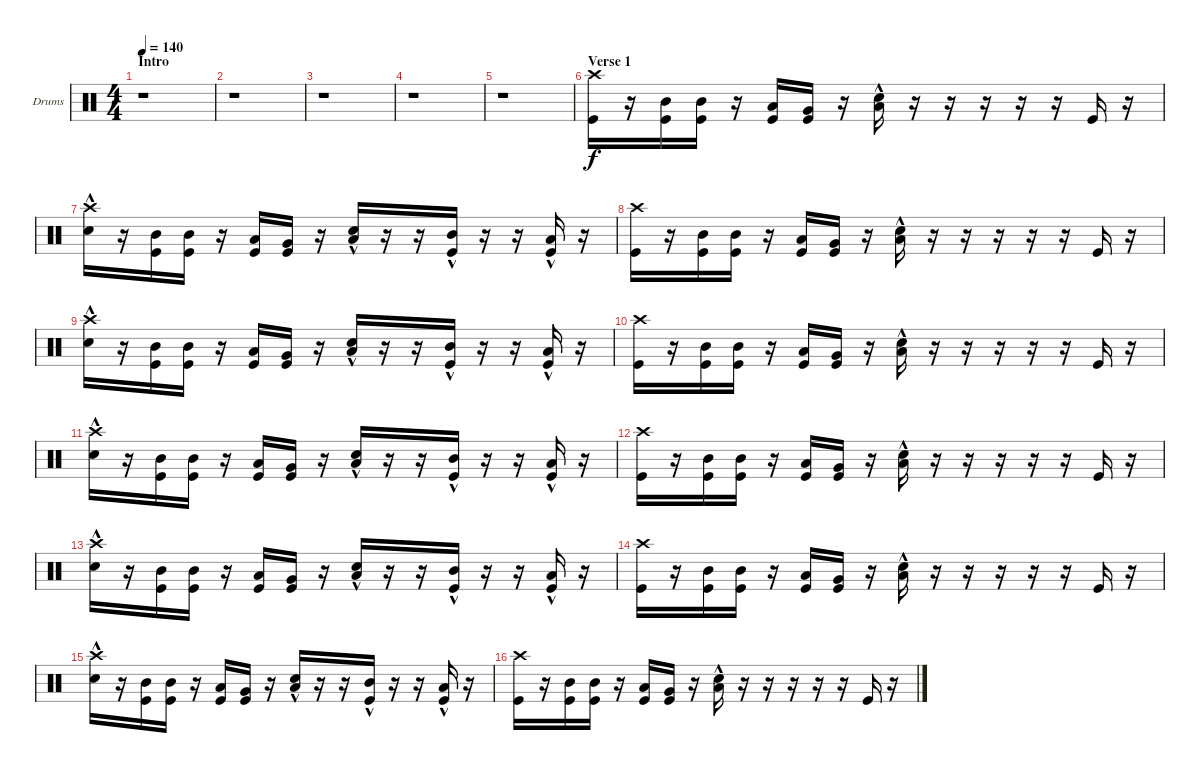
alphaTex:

\defaultSystemsLayout 4
\bracketExtendMode groupsimilarinstruments
\firstSystemTrackNameOrientation horizontal
\otherSystemsTrackNameOrientation horizontal
\track ("Drumkit - Paul" "Drums") {instrument percussion}
\staff {score}
\articulation defaults
\ts (4 4)
\section ("" "Intro")
\tempo 140
\clef neutral
\ks c
r.1{dy f} |
r.1 |
r.1 |
r.1 |
r.1 |
\section ("" "Verse 1")
("Kick (hit)" "Crash high (hit)").16 r.16 ("Mid Tom (hit)" "Kick (hit)").16 ("Mid Tom (hit)" "Kick (hit)").16 r.16 ("Low Tom (hit)" "Kick (hit)").16 ("Very Low Tom (hit)" "Kick (hit)").16 r.16 ("Snare (hit) 2"{hac} "Low Tom (hit)").16 r.16 r.16 r.16 r.16 r.16 "Kick (hit)".16 r.16 |
("Snare (hit) 2"{hac} "Crash high (hit)").16 r.16 ("Mid Tom (hit)" "Kick (hit)").16 ("Mid Tom (hit)" "Kick (hit)").16 r.16 ("Low Tom (hit)" "Kick (hit)").16 ("Very Low Tom (hit)" "Kick (hit)").16 r.16 ("Snare (hit) 2"{hac} "Low Tom (hit)").16 r.16 r.16 ("Kick (hit)" "Mid Tom (hit)"{hac}).16 r.16 r.16 ("Kick (hit)" "Low Tom (hit)"{hac}).16 r.16 |
("Kick (hit)" "Crash high (hit)").16 r.16 ("Mid Tom (hit)" "Kick (hit)").16 ("Mid Tom (hit)" "Kick (hit)").16 r.16 ("Low Tom (hit)" "Kick (hit)").16 ("Very Low Tom (hit)" "Kick (hit)").16 r.16 ("Snare (hit) 2"{hac} "Low Tom (hit)").16 r.16 r.16 r.16 r.16 r.16 "Kick (hit)".16 r.16 |
("Snare (hit) 2"{hac} "Crash high (hit)").16 r.16 ("Mid Tom (hit)" "Kick (hit)").16 ("Mid Tom (hit)" "Kick (hit)").16 r.16 ("Low Tom (hit)" "Kick (hit)").16 ("Very Low Tom (hit)" "Kick (hit)").16 r.16 ("Snare (hit) 2"{hac} "Low Tom (hit)").16 r.16 r.16 ("Kick (hit)" "Mid Tom (hit)"{hac}).16 r.16 r.16 ("Kick (hit)" "Low Tom (hit)"{hac}).16 r.16 |
("Kick (hit)" "Crash high (hit)").16 r.16 ("Mid Tom (hit)" "Kick (hit)").16 ("Mid Tom (hit)" "Kick (hit)").16 r.16 ("Low Tom (hit)" "Kick (hit)").16 ("Very Low Tom (hit)" "Kick (hit)").16 r.16 ("Snare (hit) 2"{hac} "Low Tom (hit)").16 r.16 r.16 r.16 r.16 r.16 "Kick (hit)".16 r.16 |
("Snare (hit) 2"{hac} "Crash high (hit)").16 r.16 ("Mid Tom (hit)" "Kick (hit)").16 ("Mid Tom (hit)" "Kick (hit)").16 r.16 ("Low Tom (hit)" "Kick (hit)").16 ("Very Low Tom (hit)" "Kick (hit)").16 r.16 ("Snare (hit) 2"{hac} "Low Tom (hit)").16 r.16 r.16 ("Kick (hit)" "Mid Tom (hit)"{hac}).16 r.16 r.16 ("Kick (hit)" "Low Tom (hit)"{hac}).16 r.16 |
("Kick (hit)" "Crash high (hit)").16 r.16 ("Mid Tom (hit)" "Kick (hit)").16 ("Mid Tom (hit)" "Kick (hit)").16 r.16 ("Low Tom (hit)" "Kick (hit)").16 ("Very Low Tom (hit)" "Kick (hit)").16 r.16 ("Snare (hit) 2"{hac} "Low Tom (hit)").16 r.16 r.16 r.16 r.16 r.16 "Kick (hit)".16 r.16 |
("Snare (hit) 2"{hac} "Crash high (hit)").16 r.16 ("Mid Tom (hit)" "Kick (hit)").16 ("Mid Tom (hit)" "Kick (hit)").16 r.16 ("Low Tom (hit)" "Kick (hit)").16 ("Very Low Tom (hit)" "Kick (hit)").16 r.16 ("Snare (hit) 2"{hac} "Low Tom (hit)").16 r.16 r.16 ("Kick (hit)" "Mid Tom (hit)"{hac}).16 r.16 r.16 ("Kick (hit)" "Low Tom (hit)"{hac}).16 r.16 |
("Kick (hit)" "Crash high (hit)").16 r.16 ("Mid Tom (hit)" "Kick (hit)").16 ("Mid Tom (hit)" "Kick (hit)").16 r.16 ("Low Tom (hit)" "Kick (hit)").16 ("Very Low Tom (hit)" "Kick (hit)").16 r.16 ("Snare (hit) 2"{hac} "Low Tom (hit)").16 r.16 r.16 r.16 r.16 r.16 "Kick (hit)".16 r.16 |
("Snare (hit) 2"{hac} "Crash high (hit)").16 r.16 ("Mid Tom (hit)" "Kick (hit)").16 ("Mid Tom (hit)" "Kick (hit)").16 r.16 ("Low Tom (hit)" "Kick (hit)").16 ("Very Low Tom (hit)" "Kick (hit)").16 r.16 ("Snare (hit) 2"{hac} "Low Tom (hit)").16 r.16 r.16 ("Kick (hit)" "Mid Tom (hit)"{hac}).16 r.16 r.16 ("Kick (hit)" "Low Tom (hit)"{hac}).16 r.16 |
("Kick (hit)" "Crash high (hit)").16 r.16 ("Mid Tom (hit)" "Kick (hit)").16 ("Mid Tom (hit)" "Kick (hit)").16 r.16 ("Low Tom (hit)" "Kick (hit)").16 ("Very Low Tom (hit)" "Kick (hit)").16 r.16 ("Snare (hit) 2"{hac} "Low Tom (hit)").16 r.16 r.16 r.16 r.16 r.16 "Kick (hit)".16 r.16
